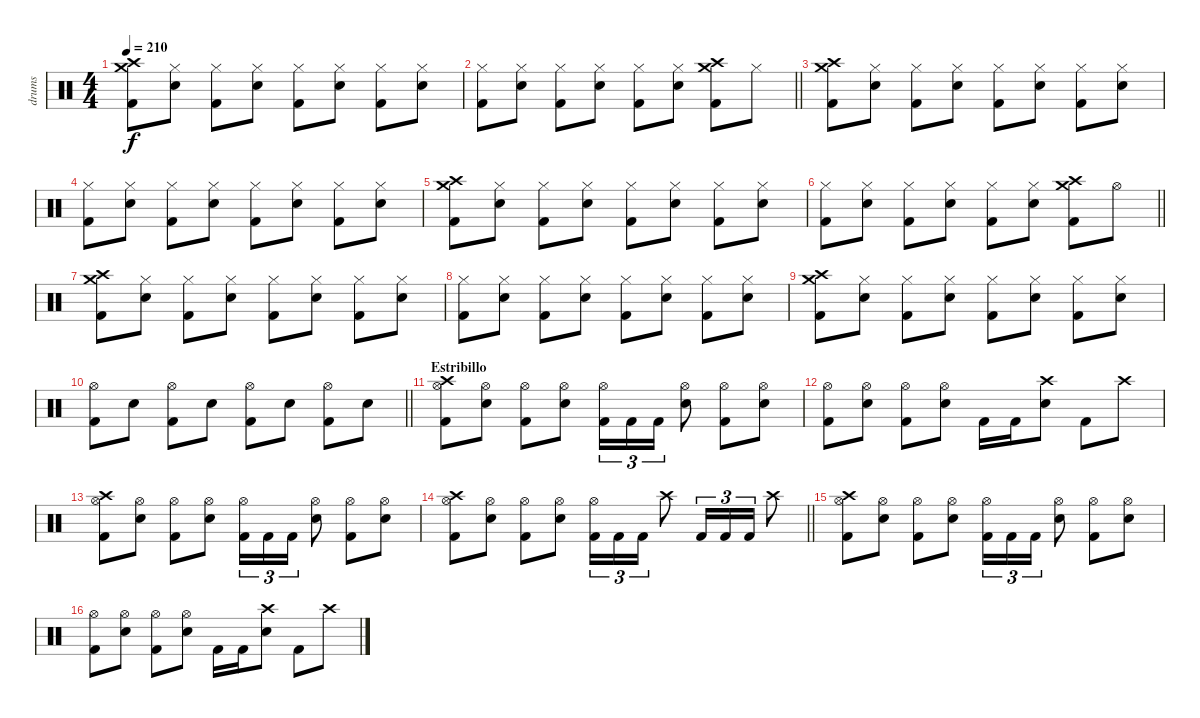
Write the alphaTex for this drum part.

\track ("drums" "drums") {instrument percussion}
\staff {score}
\articulation defaults
\ts (4 4)
\tempo 210
\clef neutral
\ks c
("Crash high (hit)" "Crash medium (hit)" "Kick (hit) 2").8{dy f} ("Hi-Hat (closed)" "Electric Snare (hit)").8 ("Hi-Hat (closed)" "Kick (hit) 2").8 ("Hi-Hat (closed)" "Electric Snare (hit)").8 ("Hi-Hat (closed)" "Kick (hit) 2").8 ("Hi-Hat (closed)" "Electric Snare (hit)").8 ("Hi-Hat (closed)" "Kick (hit) 2").8 ("Hi-Hat (closed)" "Electric Snare (hit)").8 |
\barLineRight lightlight
("Hi-Hat (closed)" "Kick (hit) 2").8 ("Hi-Hat (closed)" "Electric Snare (hit)").8 ("Hi-Hat (closed)" "Kick (hit) 2").8 ("Hi-Hat (closed)" "Electric Snare (hit)").8 ("Hi-Hat (closed)" "Kick (hit) 2").8 ("Hi-Hat (closed)" "Electric Snare (hit)").8 ("Crash high (hit)" "Crash medium (hit)" "Kick (hit) 2").8 "Hi-Hat (closed)".8 |
("Crash high (hit)" "Crash medium (hit)" "Kick (hit) 2").8 ("Hi-Hat (closed)" "Electric Snare (hit)").8 ("Hi-Hat (closed)" "Kick (hit) 2").8 ("Hi-Hat (closed)" "Electric Snare (hit)").8 ("Hi-Hat (closed)" "Kick (hit) 2").8 ("Hi-Hat (closed)" "Electric Snare (hit)").8 ("Hi-Hat (closed)" "Kick (hit) 2").8 ("Hi-Hat (closed)" "Electric Snare (hit)").8 |
("Hi-Hat (closed)" "Kick (hit) 2").8 ("Hi-Hat (closed)" "Electric Snare (hit)").8 ("Hi-Hat (closed)" "Kick (hit) 2").8 ("Hi-Hat (closed)" "Electric Snare (hit)").8 ("Hi-Hat (closed)" "Kick (hit) 2").8 ("Hi-Hat (closed)" "Electric Snare (hit)").8 ("Hi-Hat (closed)" "Kick (hit) 2").8 ("Hi-Hat (closed)" "Electric Snare (hit)").8 |
("Crash high (hit)" "Crash medium (hit)" "Kick (hit) 2").8 ("Hi-Hat (closed)" "Electric Snare (hit)").8 ("Hi-Hat (closed)" "Kick (hit) 2").8 ("Hi-Hat (closed)" "Electric Snare (hit)").8 ("Hi-Hat (closed)" "Kick (hit) 2").8 ("Hi-Hat (closed)" "Electric Snare (hit)").8 ("Hi-Hat (closed)" "Kick (hit) 2").8 ("Hi-Hat (closed)" "Electric Snare (hit)").8 |
\barLineRight lightlight
("Hi-Hat (closed)" "Kick (hit) 2").8 ("Hi-Hat (closed)" "Electric Snare (hit)").8 ("Hi-Hat (closed)" "Kick (hit) 2").8 ("Hi-Hat (closed)" "Electric Snare (hit)").8 ("Hi-Hat (closed)" "Kick (hit) 2").8 ("Hi-Hat (closed)" "Electric Snare (hit)").8 ("Crash high (hit)" "Crash medium (hit)" "Kick (hit) 2").8 "Hi-Hat (open)".8 |
("Crash high (hit)" "Crash medium (hit)" "Kick (hit) 2").8 ("Hi-Hat (closed)" "Electric Snare (hit)").8 ("Hi-Hat (closed)" "Kick (hit) 2").8 ("Hi-Hat (closed)" "Electric Snare (hit)").8 ("Hi-Hat (closed)" "Kick (hit) 2").8 ("Hi-Hat (closed)" "Electric Snare (hit)").8 ("Hi-Hat (closed)" "Kick (hit) 2").8 ("Hi-Hat (closed)" "Electric Snare (hit)").8 |
("Hi-Hat (closed)" "Kick (hit) 2").8 ("Hi-Hat (closed)" "Electric Snare (hit)").8 ("Hi-Hat (closed)" "Kick (hit) 2").8 ("Hi-Hat (closed)" "Electric Snare (hit)").8 ("Hi-Hat (closed)" "Kick (hit) 2").8 ("Hi-Hat (closed)" "Electric Snare (hit)").8 ("Hi-Hat (closed)" "Kick (hit) 2").8 ("Hi-Hat (closed)" "Electric Snare (hit)").8 |
("Crash high (hit)" "Crash medium (hit)" "Kick (hit) 2").8 ("Hi-Hat (closed)" "Electric Snare (hit)").8 ("Hi-Hat (closed)" "Kick (hit) 2").8 ("Hi-Hat (closed)" "Electric Snare (hit)").8 ("Hi-Hat (closed)" "Kick (hit) 2").8 ("Hi-Hat (closed)" "Electric Snare (hit)").8 ("Hi-Hat (closed)" "Kick (hit) 2").8 ("Hi-Hat (closed)" "Electric Snare (hit)").8 |
\barLineRight lightlight
("Hi-Hat (open)" "Kick (hit) 2").8 "Electric Snare (hit)".8 ("Hi-Hat (open)" "Kick (hit) 2").8 "Electric Snare (hit)".8 ("Hi-Hat (open)" "Kick (hit) 2").8 "Electric Snare (hit)".8 ("Hi-Hat (open)" "Kick (hit) 2").8 "Electric Snare (hit)".8 |
\section ("" "Estribillo")
("Crash high (hit)" "Hi-Hat (open)" "Kick (hit) 2").8 ("Hi-Hat (open)" "Electric Snare (hit)").8 ("Hi-Hat (open)" "Kick (hit) 2").8 ("Hi-Hat (open)" "Electric Snare (hit)").8 ("Hi-Hat (open)" "Kick (hit) 2").16{tu (3 2)} "Kick (hit) 2".16{tu (3 2)} "Kick (hit) 2".16{tu (3 2)} ("Hi-Hat (open)" "Electric Snare (hit)").8 ("Hi-Hat (open)" "Kick (hit) 2").8 ("Hi-Hat (open)" "Electric Snare (hit)").8 |
("Hi-Hat (open)" "Kick (hit) 2").8 ("Hi-Hat (open)" "Electric Snare (hit)").8 ("Hi-Hat (open)" "Kick (hit) 2").8 ("Hi-Hat (open)" "Electric Snare (hit)").8 "Kick (hit) 2".16 "Kick (hit) 2".16 ("Crash high (hit)" "Electric Snare (hit)").8 "Kick (hit) 2".8 "Crash high (hit)".8 |
("Crash high (hit)" "Hi-Hat (open)" "Kick (hit) 2").8 ("Hi-Hat (open)" "Electric Snare (hit)").8 ("Hi-Hat (open)" "Kick (hit) 2").8 ("Hi-Hat (open)" "Electric Snare (hit)").8 ("Hi-Hat (open)" "Kick (hit) 2").16{tu (3 2)} "Kick (hit) 2".16{tu (3 2)} "Kick (hit) 2".16{tu (3 2)} ("Hi-Hat (open)" "Electric Snare (hit)").8 ("Hi-Hat (open)" "Kick (hit) 2").8 ("Hi-Hat (open)" "Electric Snare (hit)").8 |
\barLineRight lightlight
("Crash high (hit)" "Hi-Hat (open)" "Kick (hit) 2").8 ("Hi-Hat (open)" "Electric Snare (hit)").8 ("Hi-Hat (open)" "Kick (hit) 2").8 ("Hi-Hat (open)" "Electric Snare (hit)").8 ("Hi-Hat (open)" "Kick (hit) 2").16{tu (3 2)} "Kick (hit) 2".16{tu (3 2)} "Kick (hit) 2".16{tu (3 2)} "Crash high (hit)".8 "Kick (hit) 2".16{tu (3 2)} "Kick (hit) 2".16{tu (3 2)} "Kick (hit) 2".16{tu (3 2)} "Crash high (hit)".8 |
("Crash high (hit)" "Hi-Hat (open)" "Kick (hit) 2").8 ("Hi-Hat (open)" "Electric Snare (hit)").8 ("Hi-Hat (open)" "Kick (hit) 2").8 ("Hi-Hat (open)" "Electric Snare (hit)").8 ("Hi-Hat (open)" "Kick (hit) 2").16{tu (3 2)} "Kick (hit) 2".16{tu (3 2)} "Kick (hit) 2".16{tu (3 2)} ("Hi-Hat (open)" "Electric Snare (hit)").8 ("Hi-Hat (open)" "Kick (hit) 2").8 ("Hi-Hat (open)" "Electric Snare (hit)").8 |
("Hi-Hat (open)" "Kick (hit) 2").8 ("Hi-Hat (open)" "Electric Snare (hit)").8 ("Hi-Hat (open)" "Kick (hit) 2").8 ("Hi-Hat (open)" "Electric Snare (hit)").8 "Kick (hit) 2".16 "Kick (hit) 2".16 ("Crash high (hit)" "Electric Snare (hit)").8 "Kick (hit) 2".8 "Crash high (hit)".8
